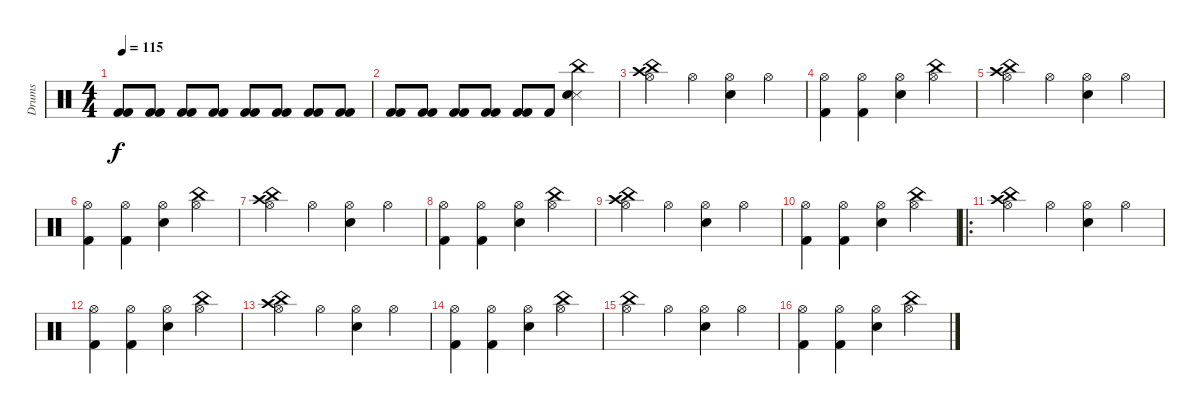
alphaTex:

\track ("Drums" "Drums") {instrument percussion}
\staff {score}
\articulation defaults
\ts (4 4)
\tempo 115
\clef neutral
\ks c
("Kick (hit) 2" "Kick (hit) 2").8{dy f} ("Kick (hit) 2" "Kick (hit) 2").8 ("Kick (hit) 2" "Kick (hit) 2").8 ("Kick (hit) 2" "Kick (hit) 2").8 ("Kick (hit) 2" "Kick (hit) 2").8 ("Kick (hit) 2" "Kick (hit) 2").8 ("Kick (hit) 2" "Kick (hit) 2").8 ("Kick (hit) 2" "Kick (hit) 2").8 |
("Kick (hit) 2" "Kick (hit) 2").8 ("Kick (hit) 2" "Kick (hit) 2").8 ("Kick (hit) 2" "Kick (hit) 2").8 ("Kick (hit) 2" "Kick (hit) 2").8 ("Kick (hit) 2" "Kick (hit) 2").8 "Kick (hit) 2".8 ("Snare (side stick) 3" "Snare (hit) 2" "China (hit)").4 |
("Crash high (hit)" "Hi-Hat (open)" "China (hit)").4 "Hi-Hat (open)".4 ("Hi-Hat (open)" "Snare (hit) 2").4 "Hi-Hat (open)".4 |
("Hi-Hat (open)" "Kick (hit) 2").4 ("Hi-Hat (open)" "Kick (hit) 2").4 ("Hi-Hat (open)" "Snare (hit) 2").4 ("Hi-Hat (open)" "China (hit)").4 |
("Crash high (hit)" "Hi-Hat (open)" "China (hit)").4 "Hi-Hat (open)".4 ("Hi-Hat (open)" "Snare (hit) 2").4 "Hi-Hat (open)".4 |
("Hi-Hat (open)" "Kick (hit) 2").4 ("Hi-Hat (open)" "Kick (hit) 2").4 ("Hi-Hat (open)" "Snare (hit) 2").4 ("Hi-Hat (open)" "China (hit)").4 |
("Crash high (hit)" "Hi-Hat (open)" "China (hit)").4 "Hi-Hat (open)".4 ("Hi-Hat (open)" "Snare (hit) 2").4 "Hi-Hat (open)".4 |
("Hi-Hat (open)" "Kick (hit) 2").4 ("Hi-Hat (open)" "Kick (hit) 2").4 ("Hi-Hat (open)" "Snare (hit) 2").4 ("Hi-Hat (open)" "China (hit)").4 |
("Crash high (hit)" "Hi-Hat (open)" "China (hit)").4 "Hi-Hat (open)".4 ("Hi-Hat (open)" "Snare (hit) 2").4 "Hi-Hat (open)".4 |
("Hi-Hat (open)" "Kick (hit) 2").4 ("Hi-Hat (open)" "Kick (hit) 2").4 ("Hi-Hat (open)" "Snare (hit) 2").4 ("Hi-Hat (open)" "China (hit)").4 |
\ro
("Crash high (hit)" "Hi-Hat (open)" "China (hit)").4 "Hi-Hat (open)".4 ("Hi-Hat (open)" "Snare (hit) 2").4 "Hi-Hat (open)".4 |
("Hi-Hat (open)" "Kick (hit) 2").4 ("Hi-Hat (open)" "Kick (hit) 2").4 ("Hi-Hat (open)" "Snare (hit) 2").4 ("Hi-Hat (open)" "China (hit)").4 |
("Crash high (hit)" "Hi-Hat (open)" "China (hit)").4 "Hi-Hat (open)".4 ("Hi-Hat (open)" "Snare (hit) 2").4 "Hi-Hat (open)".4 |
("Hi-Hat (open)" "Kick (hit) 2").4 ("Hi-Hat (open)" "Kick (hit) 2").4 ("Hi-Hat (open)" "Snare (hit) 2").4 ("Hi-Hat (open)" "China (hit)").4 |
("Hi-Hat (open)" "China (hit)").4 "Hi-Hat (open)".4 ("Hi-Hat (open)" "Snare (hit) 2").4 "Hi-Hat (open)".4 |
("Hi-Hat (open)" "Kick (hit) 2").4 ("Hi-Hat (open)" "Kick (hit) 2").4 ("Hi-Hat (open)" "Snare (hit) 2").4 ("Hi-Hat (open)" "China (hit)").4
